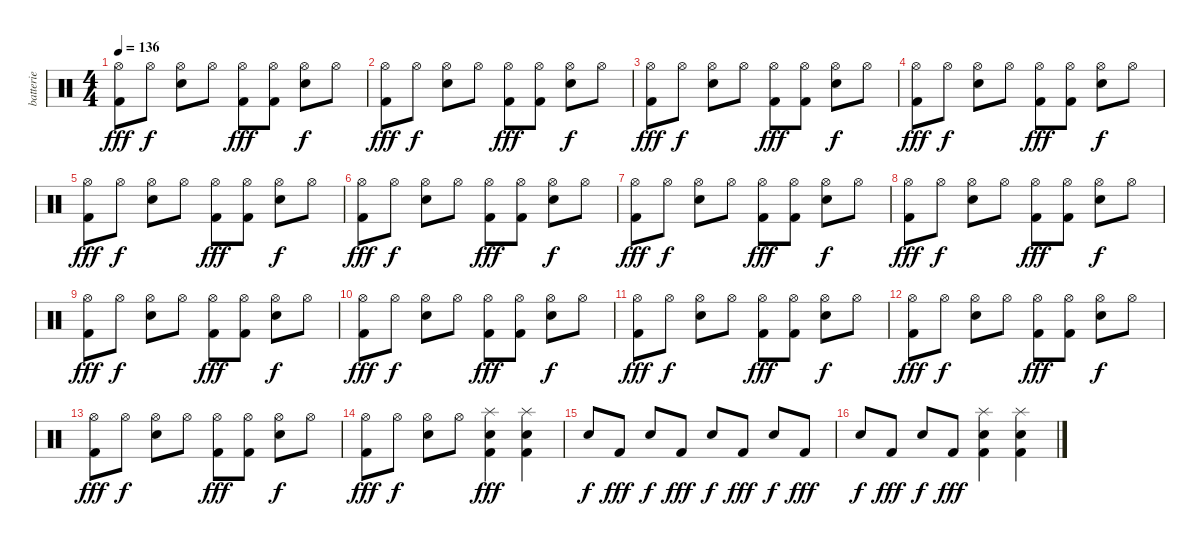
\track ("batterie" "batterie") {instrument percussion}
\staff {score}
\articulation defaults
\ts (4 4)
\tempo 136
\clef neutral
\ks c
("Hi-Hat (open)" "Kick (hit) 2").8{dy fff} "Hi-Hat (open)".8{dy f} ("Hi-Hat (open)" "Electric Snare (hit)").8 "Hi-Hat (open)".8 ("Hi-Hat (open)" "Kick (hit) 2").8{dy fff} ("Hi-Hat (open)" "Kick (hit) 2").8 ("Hi-Hat (open)" "Electric Snare (hit)").8{dy f} "Hi-Hat (open)".8 |
("Hi-Hat (open)" "Kick (hit) 2").8{dy fff} "Hi-Hat (open)".8{dy f} ("Hi-Hat (open)" "Electric Snare (hit)").8 "Hi-Hat (open)".8 ("Hi-Hat (open)" "Kick (hit) 2").8{dy fff} ("Hi-Hat (open)" "Kick (hit) 2").8 ("Hi-Hat (open)" "Electric Snare (hit)").8{dy f} "Hi-Hat (open)".8 |
("Hi-Hat (open)" "Kick (hit) 2").8{dy fff} "Hi-Hat (open)".8{dy f} ("Hi-Hat (open)" "Electric Snare (hit)").8 "Hi-Hat (open)".8 ("Hi-Hat (open)" "Kick (hit) 2").8{dy fff} ("Hi-Hat (open)" "Kick (hit) 2").8 ("Hi-Hat (open)" "Electric Snare (hit)").8{dy f} "Hi-Hat (open)".8 |
("Hi-Hat (open)" "Kick (hit) 2").8{dy fff} "Hi-Hat (open)".8{dy f} ("Hi-Hat (open)" "Electric Snare (hit)").8 "Hi-Hat (open)".8 ("Hi-Hat (open)" "Kick (hit) 2").8{dy fff} ("Hi-Hat (open)" "Kick (hit) 2").8 ("Hi-Hat (open)" "Electric Snare (hit)").8{dy f} "Hi-Hat (open)".8 |
("Hi-Hat (open)" "Kick (hit) 2").8{dy fff} "Hi-Hat (open)".8{dy f} ("Hi-Hat (open)" "Electric Snare (hit)").8 "Hi-Hat (open)".8 ("Hi-Hat (open)" "Kick (hit) 2").8{dy fff} ("Hi-Hat (open)" "Kick (hit) 2").8 ("Hi-Hat (open)" "Electric Snare (hit)").8{dy f} "Hi-Hat (open)".8 |
("Hi-Hat (open)" "Kick (hit) 2").8{dy fff} "Hi-Hat (open)".8{dy f} ("Hi-Hat (open)" "Electric Snare (hit)").8 "Hi-Hat (open)".8 ("Hi-Hat (open)" "Kick (hit) 2").8{dy fff} ("Hi-Hat (open)" "Kick (hit) 2").8 ("Hi-Hat (open)" "Electric Snare (hit)").8{dy f} "Hi-Hat (open)".8 |
("Hi-Hat (open)" "Kick (hit) 2").8{dy fff} "Hi-Hat (open)".8{dy f} ("Hi-Hat (open)" "Electric Snare (hit)").8 "Hi-Hat (open)".8 ("Hi-Hat (open)" "Kick (hit) 2").8{dy fff} ("Hi-Hat (open)" "Kick (hit) 2").8 ("Hi-Hat (open)" "Electric Snare (hit)").8{dy f} "Hi-Hat (open)".8 |
("Hi-Hat (open)" "Kick (hit) 2").8{dy fff} "Hi-Hat (open)".8{dy f} ("Hi-Hat (open)" "Electric Snare (hit)").8 "Hi-Hat (open)".8 ("Hi-Hat (open)" "Kick (hit) 2").8{dy fff} ("Hi-Hat (open)" "Kick (hit) 2").8 ("Hi-Hat (open)" "Electric Snare (hit)").8{dy f} "Hi-Hat (open)".8 |
("Hi-Hat (open)" "Kick (hit) 2").8{dy fff} "Hi-Hat (open)".8{dy f} ("Hi-Hat (open)" "Electric Snare (hit)").8 "Hi-Hat (open)".8 ("Hi-Hat (open)" "Kick (hit) 2").8{dy fff} ("Hi-Hat (open)" "Kick (hit) 2").8 ("Hi-Hat (open)" "Electric Snare (hit)").8{dy f} "Hi-Hat (open)".8 |
("Hi-Hat (open)" "Kick (hit) 2").8{dy fff} "Hi-Hat (open)".8{dy f} ("Hi-Hat (open)" "Electric Snare (hit)").8 "Hi-Hat (open)".8 ("Hi-Hat (open)" "Kick (hit) 2").8{dy fff} ("Hi-Hat (open)" "Kick (hit) 2").8 ("Hi-Hat (open)" "Electric Snare (hit)").8{dy f} "Hi-Hat (open)".8 |
("Hi-Hat (open)" "Kick (hit) 2").8{dy fff} "Hi-Hat (open)".8{dy f} ("Hi-Hat (open)" "Electric Snare (hit)").8 "Hi-Hat (open)".8 ("Hi-Hat (open)" "Kick (hit) 2").8{dy fff} ("Hi-Hat (open)" "Kick (hit) 2").8 ("Hi-Hat (open)" "Electric Snare (hit)").8{dy f} "Hi-Hat (open)".8 |
("Hi-Hat (open)" "Kick (hit) 2").8{dy fff} "Hi-Hat (open)".8{dy f} ("Hi-Hat (open)" "Electric Snare (hit)").8 "Hi-Hat (open)".8 ("Hi-Hat (open)" "Kick (hit) 2").8{dy fff} ("Hi-Hat (open)" "Kick (hit) 2").8 ("Hi-Hat (open)" "Electric Snare (hit)").8{dy f} "Hi-Hat (open)".8 |
("Hi-Hat (open)" "Kick (hit) 2").8{dy fff} "Hi-Hat (open)".8{dy f} ("Hi-Hat (open)" "Electric Snare (hit)").8 "Hi-Hat (open)".8 ("Hi-Hat (open)" "Kick (hit) 2").8{dy fff} ("Hi-Hat (open)" "Kick (hit) 2").8 ("Hi-Hat (open)" "Electric Snare (hit)").8{dy f} "Hi-Hat (open)".8 |
("Hi-Hat (open)" "Kick (hit) 2").8{dy fff} "Hi-Hat (open)".8{dy f} ("Hi-Hat (open)" "Electric Snare (hit)").8 "Hi-Hat (open)".8 ("Splash (hit)" "Electric Snare (hit)" "Kick (hit) 2").4{dy fff} ("Splash (hit)" "Electric Snare (hit)" "Kick (hit) 2").4 |
"Electric Snare (hit)".8{dy f} "Kick (hit) 2".8{dy fff} "Electric Snare (hit)".8{dy f} "Kick (hit) 2".8{dy fff} "Electric Snare (hit)".8{dy f} "Kick (hit) 2".8{dy fff} "Electric Snare (hit)".8{dy f} "Kick (hit) 2".8{dy fff} |
"Electric Snare (hit)".8{dy f} "Kick (hit) 2".8{dy fff} "Electric Snare (hit)".8{dy f} "Kick (hit) 2".8{dy fff} ("Splash (hit)" "Electric Snare (hit)" "Kick (hit) 2").4 ("Splash (hit)" "Electric Snare (hit)" "Kick (hit) 2").4
